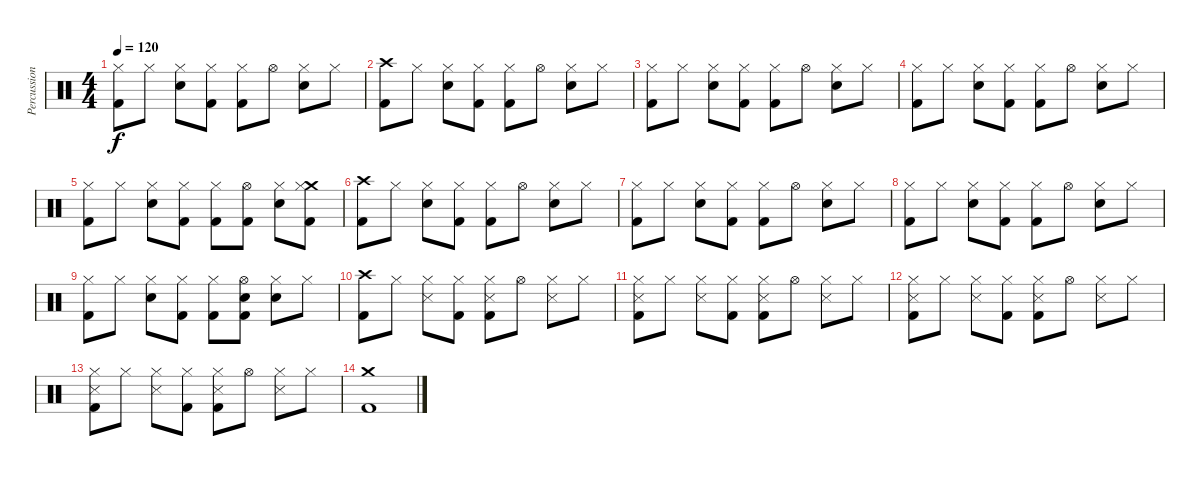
\track ("Percussion" "Percussion") {instrument percussion}
\staff {score}
\articulation defaults
\ts (4 4)
\tempo 120
\clef neutral
\ks c
("Hi-Hat (closed)" "Kick (hit) 2").8{dy f} "Hi-Hat (closed)".8 ("Hi-Hat (closed)" "Electric Snare (hit)").8 ("Hi-Hat (closed)" "Kick (hit) 2").8 ("Hi-Hat (closed)" "Kick (hit) 2").8 "Hi-Hat (open)".8 ("Hi-Hat (closed)" "Electric Snare (hit)").8 "Hi-Hat (closed)".8 |
("Crash high (hit)" "Kick (hit) 2").8 "Hi-Hat (closed)".8 ("Hi-Hat (closed)" "Electric Snare (hit)").8 ("Hi-Hat (closed)" "Kick (hit) 2").8 ("Hi-Hat (closed)" "Kick (hit) 2").8 "Hi-Hat (open)".8 ("Hi-Hat (closed)" "Electric Snare (hit)").8 "Hi-Hat (closed)".8 |
("Hi-Hat (closed)" "Kick (hit) 2").8 "Hi-Hat (closed)".8 ("Hi-Hat (closed)" "Electric Snare (hit)").8 ("Hi-Hat (closed)" "Kick (hit) 2").8 ("Hi-Hat (closed)" "Kick (hit) 2").8 "Hi-Hat (open)".8 ("Hi-Hat (closed)" "Electric Snare (hit)").8 "Hi-Hat (closed)".8 |
("Hi-Hat (closed)" "Kick (hit) 2").8 "Hi-Hat (closed)".8 ("Hi-Hat (closed)" "Electric Snare (hit)").8 ("Hi-Hat (closed)" "Kick (hit) 2").8 ("Hi-Hat (closed)" "Kick (hit) 2").8 "Hi-Hat (open)".8 ("Hi-Hat (closed)" "Electric Snare (hit)").8 "Hi-Hat (closed)".8 |
("Hi-Hat (closed)" "Kick (hit) 2").8 "Hi-Hat (closed)".8 ("Hi-Hat (closed)" "Electric Snare (hit)").8 ("Hi-Hat (closed)" "Kick (hit) 2").8 ("Hi-Hat (closed)" "Kick (hit) 2").8 ("Hi-Hat (open)" "Kick (hit) 2").8 ("Hi-Hat (closed)" "Electric Snare (hit)").8 ("Crash medium (hit)" "Hi-Hat (closed)" "Kick (hit) 2").8 |
("Crash high (hit)" "Kick (hit) 2").8 "Hi-Hat (closed)".8 ("Hi-Hat (closed)" "Electric Snare (hit)").8 ("Hi-Hat (closed)" "Kick (hit) 2").8 ("Hi-Hat (closed)" "Kick (hit) 2").8 "Hi-Hat (open)".8 ("Hi-Hat (closed)" "Electric Snare (hit)").8 "Hi-Hat (closed)".8 |
("Hi-Hat (closed)" "Kick (hit) 2").8 "Hi-Hat (closed)".8 ("Hi-Hat (closed)" "Electric Snare (hit)").8 ("Hi-Hat (closed)" "Kick (hit) 2").8 ("Hi-Hat (closed)" "Kick (hit) 2").8 "Hi-Hat (open)".8 ("Hi-Hat (closed)" "Electric Snare (hit)").8 "Hi-Hat (closed)".8 |
("Hi-Hat (closed)" "Kick (hit) 2").8 "Hi-Hat (closed)".8 ("Hi-Hat (closed)" "Electric Snare (hit)").8 ("Hi-Hat (closed)" "Kick (hit) 2").8 ("Hi-Hat (closed)" "Kick (hit) 2").8 "Hi-Hat (open)".8 ("Hi-Hat (closed)" "Electric Snare (hit)").8 "Hi-Hat (closed)".8 |
("Hi-Hat (closed)" "Kick (hit) 2").8 "Hi-Hat (closed)".8 ("Hi-Hat (closed)" "Electric Snare (hit)").8 ("Hi-Hat (closed)" "Kick (hit) 2").8 ("Hi-Hat (closed)" "Kick (hit) 2").8 ("Hi-Hat (open)" "Electric Snare (hit)" "Kick (hit) 2").8 ("Hi-Hat (closed)" "Electric Snare (hit)").8 "Hi-Hat (closed)".8 |
("Crash high (hit)" "Kick (hit) 2").8 "Hi-Hat (closed)".8 ("Hi-Hat (closed)" "Snare (side stick) 3").8 ("Hi-Hat (closed)" "Kick (hit) 2").8 ("Hi-Hat (closed)" "Snare (side stick) 3" "Kick (hit) 2").8 "Hi-Hat (open)".8 ("Hi-Hat (closed)" "Snare (side stick) 3").8 "Hi-Hat (closed)".8 |
("Hi-Hat (closed)" "Snare (side stick) 3" "Kick (hit) 2").8 "Hi-Hat (closed)".8 ("Hi-Hat (closed)" "Snare (side stick) 3").8 ("Hi-Hat (closed)" "Kick (hit) 2").8 ("Hi-Hat (closed)" "Snare (side stick) 3" "Kick (hit) 2").8 "Hi-Hat (open)".8 ("Hi-Hat (closed)" "Snare (side stick) 3").8 "Hi-Hat (closed)".8 |
("Hi-Hat (closed)" "Snare (side stick) 3" "Kick (hit) 2").8 "Hi-Hat (closed)".8 ("Hi-Hat (closed)" "Snare (side stick) 3").8 ("Hi-Hat (closed)" "Kick (hit) 2").8 ("Hi-Hat (closed)" "Snare (side stick) 3" "Kick (hit) 2").8 "Hi-Hat (open)".8 ("Hi-Hat (closed)" "Snare (side stick) 3").8 "Hi-Hat (closed)".8 |
("Hi-Hat (closed)" "Snare (side stick) 3" "Kick (hit) 2").8 "Hi-Hat (closed)".8 ("Hi-Hat (closed)" "Snare (side stick) 3").8 ("Hi-Hat (closed)" "Kick (hit) 2").8 ("Hi-Hat (closed)" "Snare (side stick) 3" "Kick (hit) 2").8 "Hi-Hat (open)".8 ("Hi-Hat (closed)" "Snare (side stick) 3").8 "Hi-Hat (closed)".8 |
("Crash medium (hit)" "Kick (hit) 2").1
